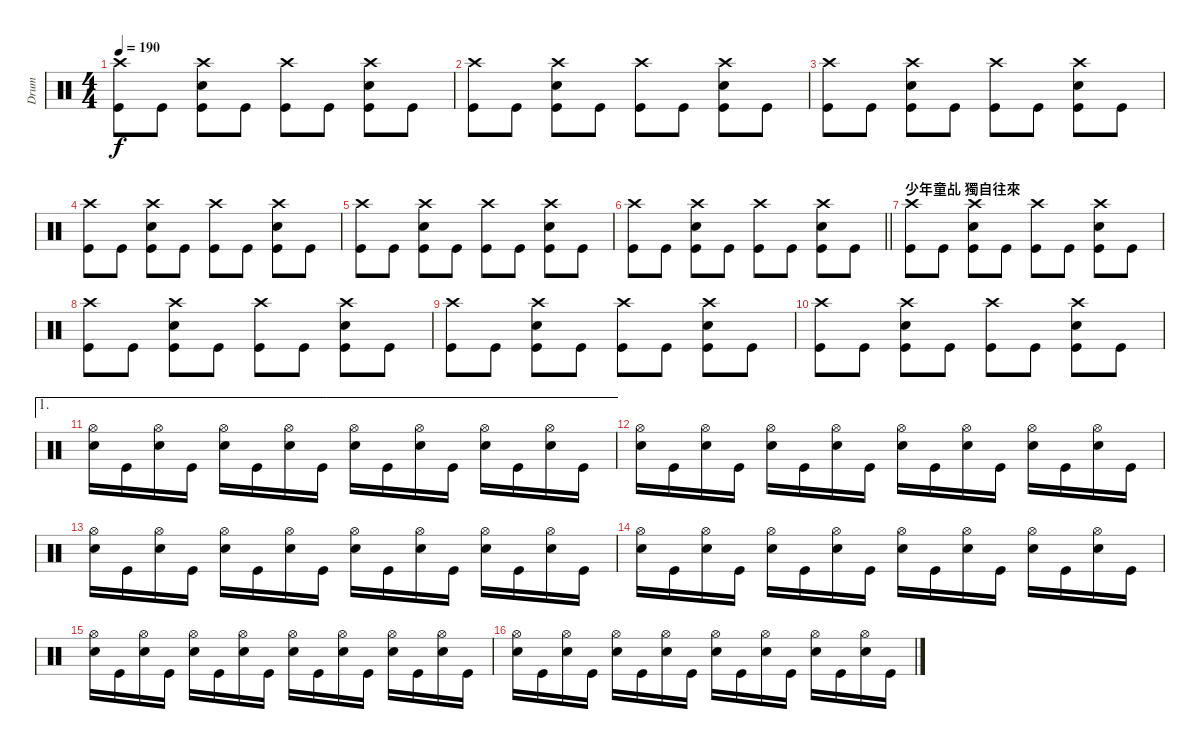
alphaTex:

\track ("Drum" "Drum") {instrument percussion}
\staff {score}
\articulation defaults
\ts (4 4)
\tempo 190
\clef neutral
\ks c
("Crash high (hit)" "Kick (hit)").8{dy f} "Kick (hit)".8 ("Crash high (hit)" "Kick (hit)" "Snare (hit) 2").8 "Kick (hit)".8 ("Crash high (hit)" "Kick (hit)").8 "Kick (hit)".8 ("Snare (hit) 2" "Kick (hit)" "Crash high (hit)").8 "Kick (hit)".8 |
("Crash high (hit)" "Kick (hit)").8 "Kick (hit)".8 ("Crash high (hit)" "Kick (hit)" "Snare (hit) 2").8 "Kick (hit)".8 ("Crash high (hit)" "Kick (hit)").8 "Kick (hit)".8 ("Snare (hit) 2" "Kick (hit)" "Crash high (hit)").8 "Kick (hit)".8 |
("Crash high (hit)" "Kick (hit)").8 "Kick (hit)".8 ("Crash high (hit)" "Kick (hit)" "Snare (hit) 2").8 "Kick (hit)".8 ("Crash high (hit)" "Kick (hit)").8 "Kick (hit)".8 ("Snare (hit) 2" "Kick (hit)" "Crash high (hit)").8 "Kick (hit)".8 |
("Crash high (hit)" "Kick (hit)").8 "Kick (hit)".8 ("Crash high (hit)" "Kick (hit)" "Snare (hit) 2").8 "Kick (hit)".8 ("Crash high (hit)" "Kick (hit)").8 "Kick (hit)".8 ("Snare (hit) 2" "Kick (hit)" "Crash high (hit)").8 "Kick (hit)".8 |
("Crash high (hit)" "Kick (hit)").8 "Kick (hit)".8 ("Crash high (hit)" "Kick (hit)" "Snare (hit) 2").8 "Kick (hit)".8 ("Crash high (hit)" "Kick (hit)").8 "Kick (hit)".8 ("Snare (hit) 2" "Kick (hit)" "Crash high (hit)").8 "Kick (hit)".8 |
\barLineRight lightlight
("Crash high (hit)" "Kick (hit)").8 "Kick (hit)".8 ("Crash high (hit)" "Kick (hit)" "Snare (hit) 2").8 "Kick (hit)".8 ("Crash high (hit)" "Kick (hit)").8 "Kick (hit)".8 ("Snare (hit) 2" "Kick (hit)" "Crash high (hit)").8 "Kick (hit)".8 |
\section ("" "少年童乩 獨自往來")
("Crash high (hit)" "Kick (hit)").8 "Kick (hit)".8 ("Crash high (hit)" "Kick (hit)" "Snare (hit) 2").8 "Kick (hit)".8 ("Crash high (hit)" "Kick (hit)").8 "Kick (hit)".8 ("Snare (hit) 2" "Kick (hit)" "Crash high (hit)").8 "Kick (hit)".8 |
("Crash high (hit)" "Kick (hit)").8 "Kick (hit)".8 ("Crash high (hit)" "Kick (hit)" "Snare (hit) 2").8 "Kick (hit)".8 ("Crash high (hit)" "Kick (hit)").8 "Kick (hit)".8 ("Snare (hit) 2" "Kick (hit)" "Crash high (hit)").8 "Kick (hit)".8 |
("Crash high (hit)" "Kick (hit)").8 "Kick (hit)".8 ("Crash high (hit)" "Kick (hit)" "Snare (hit) 2").8 "Kick (hit)".8 ("Crash high (hit)" "Kick (hit)").8 "Kick (hit)".8 ("Snare (hit) 2" "Kick (hit)" "Crash high (hit)").8 "Kick (hit)".8 |
("Crash high (hit)" "Kick (hit)").8 "Kick (hit)".8 ("Crash high (hit)" "Kick (hit)" "Snare (hit) 2").8 "Kick (hit)".8 ("Crash high (hit)" "Kick (hit)").8 "Kick (hit)".8 ("Snare (hit) 2" "Kick (hit)" "Crash high (hit)").8 "Kick (hit)".8 |
\ae 1
("Hi-Hat (open)" "Snare (hit) 2").16 "Kick (hit)".16 ("Hi-Hat (open)" "Snare (hit) 2").16 "Kick (hit)".16 ("Hi-Hat (open)" "Snare (hit) 2").16 "Kick (hit)".16 ("Hi-Hat (open)" "Snare (hit) 2").16 "Kick (hit)".16 ("Hi-Hat (open)" "Snare (hit) 2").16 "Kick (hit)".16 ("Hi-Hat (open)" "Snare (hit) 2").16 "Kick (hit)".16 ("Hi-Hat (open)" "Snare (hit) 2").16 "Kick (hit)".16 ("Hi-Hat (open)" "Snare (hit) 2").16 "Kick (hit)".16 |
("Hi-Hat (open)" "Snare (hit) 2").16 "Kick (hit)".16 ("Hi-Hat (open)" "Snare (hit) 2").16 "Kick (hit)".16 ("Hi-Hat (open)" "Snare (hit) 2").16 "Kick (hit)".16 ("Hi-Hat (open)" "Snare (hit) 2").16 "Kick (hit)".16 ("Hi-Hat (open)" "Snare (hit) 2").16 "Kick (hit)".16 ("Hi-Hat (open)" "Snare (hit) 2").16 "Kick (hit)".16 ("Hi-Hat (open)" "Snare (hit) 2").16 "Kick (hit)".16 ("Hi-Hat (open)" "Snare (hit) 2").16 "Kick (hit)".16 |
("Hi-Hat (open)" "Snare (hit) 2").16 "Kick (hit)".16 ("Hi-Hat (open)" "Snare (hit) 2").16 "Kick (hit)".16 ("Hi-Hat (open)" "Snare (hit) 2").16 "Kick (hit)".16 ("Hi-Hat (open)" "Snare (hit) 2").16 "Kick (hit)".16 ("Hi-Hat (open)" "Snare (hit) 2").16 "Kick (hit)".16 ("Hi-Hat (open)" "Snare (hit) 2").16 "Kick (hit)".16 ("Hi-Hat (open)" "Snare (hit) 2").16 "Kick (hit)".16 ("Hi-Hat (open)" "Snare (hit) 2").16 "Kick (hit)".16 |
("Hi-Hat (open)" "Snare (hit) 2").16 "Kick (hit)".16 ("Hi-Hat (open)" "Snare (hit) 2").16 "Kick (hit)".16 ("Hi-Hat (open)" "Snare (hit) 2").16 "Kick (hit)".16 ("Hi-Hat (open)" "Snare (hit) 2").16 "Kick (hit)".16 ("Hi-Hat (open)" "Snare (hit) 2").16 "Kick (hit)".16 ("Hi-Hat (open)" "Snare (hit) 2").16 "Kick (hit)".16 ("Hi-Hat (open)" "Snare (hit) 2").16 "Kick (hit)".16 ("Hi-Hat (open)" "Snare (hit) 2").16 "Kick (hit)".16 |
("Hi-Hat (open)" "Snare (hit) 2").16 "Kick (hit)".16 ("Hi-Hat (open)" "Snare (hit) 2").16 "Kick (hit)".16 ("Hi-Hat (open)" "Snare (hit) 2").16 "Kick (hit)".16 ("Hi-Hat (open)" "Snare (hit) 2").16 "Kick (hit)".16 ("Hi-Hat (open)" "Snare (hit) 2").16 "Kick (hit)".16 ("Hi-Hat (open)" "Snare (hit) 2").16 "Kick (hit)".16 ("Hi-Hat (open)" "Snare (hit) 2").16 "Kick (hit)".16 ("Hi-Hat (open)" "Snare (hit) 2").16 "Kick (hit)".16 |
("Hi-Hat (open)" "Snare (hit) 2").16 "Kick (hit)".16 ("Hi-Hat (open)" "Snare (hit) 2").16 "Kick (hit)".16 ("Hi-Hat (open)" "Snare (hit) 2").16 "Kick (hit)".16 ("Hi-Hat (open)" "Snare (hit) 2").16 "Kick (hit)".16 ("Hi-Hat (open)" "Snare (hit) 2").16 "Kick (hit)".16 ("Hi-Hat (open)" "Snare (hit) 2").16 "Kick (hit)".16 ("Hi-Hat (open)" "Snare (hit) 2").16 "Kick (hit)".16 ("Hi-Hat (open)" "Snare (hit) 2").16 "Kick (hit)".16
